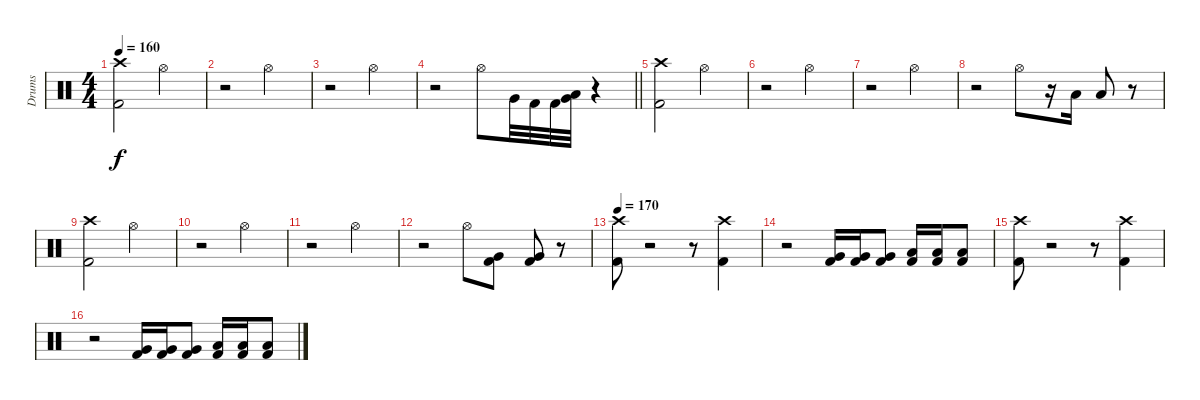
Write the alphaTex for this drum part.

\track ("Drums" "Drums") {instrument percussion}
\staff {score}
\articulation defaults
\ts (4 4)
\tempo 160
\clef neutral
\ks c
("Crash high (hit)" "Kick (hit) 2").2{dy f} "Hi-Hat (open)".2 |
r.2 "Hi-Hat (open)".2 |
r.2 "Hi-Hat (open)".2 |
\barLineRight lightlight
r.2 "Hi-Hat (open)".8 "Very Low Tom (hit)".32 "Kick (hit) 2".32 "Kick (hit) 2".32 ("Very Low Tom (hit)" "Low Floor Tom (hit)").32 r.4 |
("Crash high (hit)" "Kick (hit) 2").2 "Hi-Hat (open)".2 |
r.2 "Hi-Hat (open)".2 |
r.2 "Hi-Hat (open)".2 |
r.2 "Hi-Hat (open)".8 r.16 "Low Floor Tom (hit)".16 "Low Floor Tom (hit)".8 r.8 |
("Crash high (hit)" "Kick (hit) 2").2 "Hi-Hat (open)".2 |
r.2 "Hi-Hat (open)".2 |
r.2 "Hi-Hat (open)".2 |
r.2 "Hi-Hat (open)".8 ("Very Low Tom (hit)" "Kick (hit) 2").8 ("Very Low Tom (hit)" "Kick (hit) 2").8 r.8 |
\tempo 170
("Crash high (hit)" "Kick (hit) 2").8 r.2 r.8 ("Crash high (hit)" "Kick (hit) 2").4 |
r.2 ("Very Low Tom (hit)" "Kick (hit) 2").16 ("Very Low Tom (hit)" "Kick (hit) 2").16 ("Very Low Tom (hit)" "Kick (hit) 2").8 ("Low Floor Tom (hit)" "Kick (hit) 2").16 ("Low Floor Tom (hit)" "Kick (hit) 2").16 ("Low Floor Tom (hit)" "Kick (hit) 2").8 |
("Crash high (hit)" "Kick (hit) 2").8 r.2 r.8 ("Crash high (hit)" "Kick (hit) 2").4 |
r.2 ("Very Low Tom (hit)" "Kick (hit) 2").16 ("Very Low Tom (hit)" "Kick (hit) 2").16 ("Very Low Tom (hit)" "Kick (hit) 2").8 ("Low Floor Tom (hit)" "Kick (hit) 2").16 ("Low Floor Tom (hit)" "Kick (hit) 2").16 ("Low Floor Tom (hit)" "Kick (hit) 2").8
